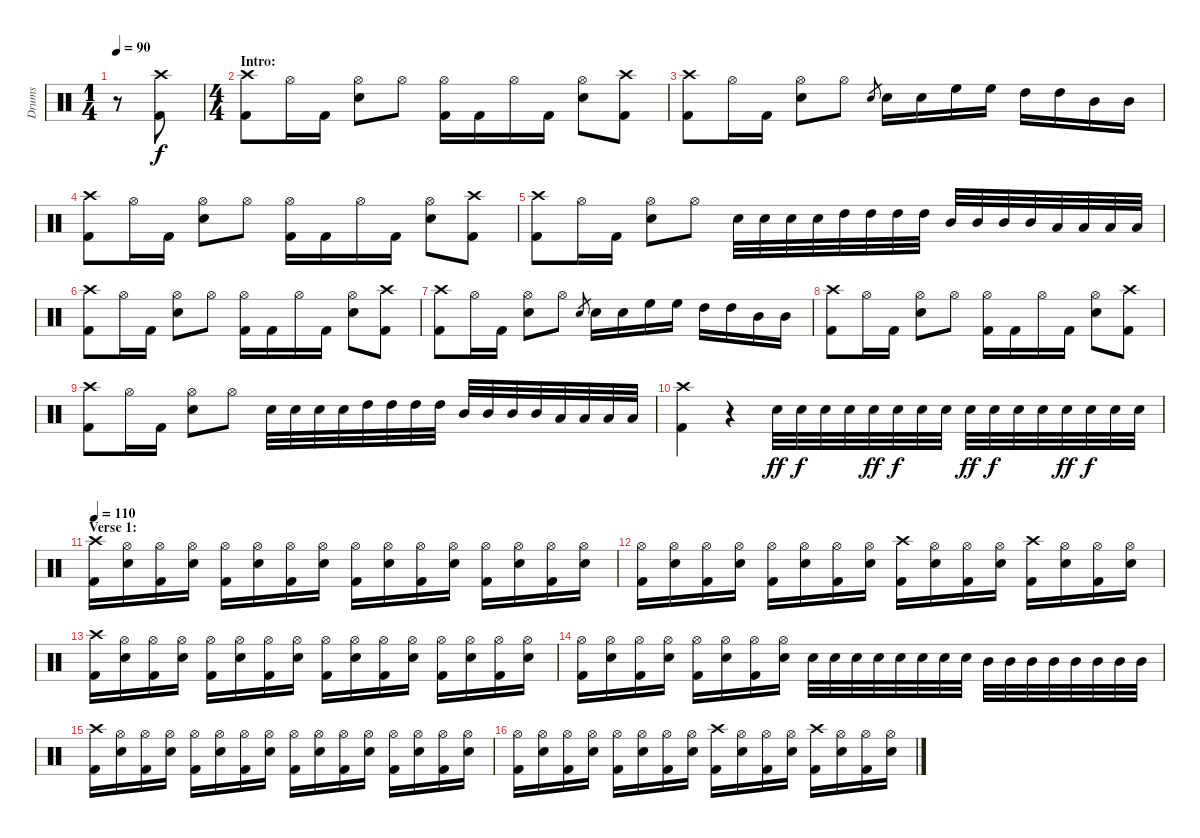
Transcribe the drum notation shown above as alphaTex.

\track ("Drums" "Drums") {instrument percussion}
\staff {score}
\articulation defaults
\ts (1 4)
\tempo 90
\clef neutral
\ks c
r.8{dy f} ("Crash high (hit)" "Kick (hit) 2").8 |
\ts (4 4)
\section ("" "Intro:")
("Crash high (hit)" "Kick (hit) 2").8 "Hi-Hat (open)".16 "Kick (hit) 2".16 ("Hi-Hat (open)" "Electric Snare (hit)").8 "Hi-Hat (open)".8 ("Hi-Hat (open)" "Kick (hit) 2").16 "Kick (hit) 2".16 "Hi-Hat (open)".16 "Kick (hit) 2".16 ("Hi-Hat (open)" "Electric Snare (hit)").8 ("Crash high (hit)" "Kick (hit) 2").8 |
("Crash high (hit)" "Kick (hit) 2").8 "Hi-Hat (open)".16 "Kick (hit) 2".16 ("Hi-Hat (open)" "Electric Snare (hit)").8 "Hi-Hat (open)".8 "Electric Snare (hit)".8{gr} "Electric Snare (hit)".16 "Electric Snare (hit)".16 "High Floor Tom (hit)".16 "High Floor Tom (hit)".16 "High Tom (hit)".16 "High Tom (hit)".16 "Mid Tom (hit)".16 "Mid Tom (hit)".16 |
("Crash high (hit)" "Kick (hit) 2").8 "Hi-Hat (open)".16 "Kick (hit) 2".16 ("Hi-Hat (open)" "Electric Snare (hit)").8 "Hi-Hat (open)".8 ("Hi-Hat (open)" "Kick (hit) 2").16 "Kick (hit) 2".16 "Hi-Hat (open)".16 "Kick (hit) 2".16 ("Hi-Hat (open)" "Electric Snare (hit)").8 ("Crash high (hit)" "Kick (hit) 2").8 |
("Crash high (hit)" "Kick (hit) 2").8 "Hi-Hat (open)".16 "Kick (hit) 2".16 ("Hi-Hat (open)" "Electric Snare (hit)").8 "Hi-Hat (open)".8 "Electric Snare (hit)".32 "Electric Snare (hit)".32 "Electric Snare (hit)".32 "Electric Snare (hit)".32 "High Tom (hit)".32 "High Tom (hit)".32 "High Tom (hit)".32 "High Tom (hit)".32 "Mid Tom (hit)".32 "Mid Tom (hit)".32 "Mid Tom (hit)".32 "Mid Tom (hit)".32 "Low Tom (hit)".32 "Low Tom (hit)".32 "Low Tom (hit)".32 "Low Tom (hit)".32 |
("Crash high (hit)" "Kick (hit) 2").8 "Hi-Hat (open)".16 "Kick (hit) 2".16 ("Hi-Hat (open)" "Electric Snare (hit)").8 "Hi-Hat (open)".8 ("Hi-Hat (open)" "Kick (hit) 2").16 "Kick (hit) 2".16 "Hi-Hat (open)".16 "Kick (hit) 2".16 ("Hi-Hat (open)" "Electric Snare (hit)").8 ("Crash high (hit)" "Kick (hit) 2").8 |
("Crash high (hit)" "Kick (hit) 2").8 "Hi-Hat (open)".16 "Kick (hit) 2".16 ("Hi-Hat (open)" "Electric Snare (hit)").8 "Hi-Hat (open)".8 "Electric Snare (hit)".8{gr} "Electric Snare (hit)".16 "Electric Snare (hit)".16 "High Floor Tom (hit)".16 "High Floor Tom (hit)".16 "High Tom (hit)".16 "High Tom (hit)".16 "Mid Tom (hit)".16 "Mid Tom (hit)".16 |
("Crash high (hit)" "Kick (hit) 2").8 "Hi-Hat (open)".16 "Kick (hit) 2".16 ("Hi-Hat (open)" "Electric Snare (hit)").8 "Hi-Hat (open)".8 ("Hi-Hat (open)" "Kick (hit) 2").16 "Kick (hit) 2".16 "Hi-Hat (open)".16 "Kick (hit) 2".16 ("Hi-Hat (open)" "Electric Snare (hit)").8 ("Crash high (hit)" "Kick (hit) 2").8 |
("Crash high (hit)" "Kick (hit) 2").8 "Hi-Hat (open)".16 "Kick (hit) 2".16 ("Hi-Hat (open)" "Electric Snare (hit)").8 "Hi-Hat (open)".8 "Electric Snare (hit)".32 "Electric Snare (hit)".32 "Electric Snare (hit)".32 "Electric Snare (hit)".32 "High Tom (hit)".32 "High Tom (hit)".32 "High Tom (hit)".32 "High Tom (hit)".32 "Mid Tom (hit)".32 "Mid Tom (hit)".32 "Mid Tom (hit)".32 "Mid Tom (hit)".32 "Low Tom (hit)".32 "Low Tom (hit)".32 "Low Tom (hit)".32 "Low Tom (hit)".32 |
("Crash high (hit)" "Kick (hit) 2").4 r.4 "Electric Snare (hit)".32{dy ff} "Electric Snare (hit)".32{dy f} "Electric Snare (hit)".32 "Electric Snare (hit)".32 "Electric Snare (hit)".32{dy ff} "Electric Snare (hit)".32{dy f} "Electric Snare (hit)".32 "Electric Snare (hit)".32 "Electric Snare (hit)".32{dy ff} "Electric Snare (hit)".32{dy f} "Electric Snare (hit)".32 "Electric Snare (hit)".32 "Electric Snare (hit)".32{dy ff} "Electric Snare (hit)".32{dy f} "Electric Snare (hit)".32 "Electric Snare (hit)".32 |
\section ("" "Verse 1:")
\tempo 110
("Crash high (hit)" "Kick (hit) 2").16 ("Hi-Hat (open)" "Electric Snare (hit)").16 ("Hi-Hat (open)" "Kick (hit) 2").16 ("Hi-Hat (open)" "Electric Snare (hit)").16 ("Hi-Hat (open)" "Kick (hit) 2").16 ("Hi-Hat (open)" "Electric Snare (hit)").16 ("Hi-Hat (open)" "Kick (hit) 2").16 ("Hi-Hat (open)" "Electric Snare (hit)").16 ("Hi-Hat (open)" "Kick (hit) 2").16 ("Hi-Hat (open)" "Electric Snare (hit)").16 ("Hi-Hat (open)" "Kick (hit) 2").16 ("Hi-Hat (open)" "Electric Snare (hit)").16 ("Hi-Hat (open)" "Kick (hit) 2").16 ("Hi-Hat (open)" "Electric Snare (hit)").16 ("Hi-Hat (open)" "Kick (hit) 2").16 ("Hi-Hat (open)" "Electric Snare (hit)").16 |
("Hi-Hat (open)" "Kick (hit) 2").16 ("Hi-Hat (open)" "Electric Snare (hit)").16 ("Hi-Hat (open)" "Kick (hit) 2").16 ("Hi-Hat (open)" "Electric Snare (hit)").16 ("Hi-Hat (open)" "Kick (hit) 2").16 ("Hi-Hat (open)" "Electric Snare (hit)").16 ("Hi-Hat (open)" "Kick (hit) 2").16 ("Hi-Hat (open)" "Electric Snare (hit)").16 ("Crash high (hit)" "Kick (hit) 2").16 ("Hi-Hat (open)" "Electric Snare (hit)").16 ("Hi-Hat (open)" "Kick (hit) 2").16 ("Hi-Hat (open)" "Electric Snare (hit)").16 ("Crash high (hit)" "Kick (hit) 2").16 ("Hi-Hat (open)" "Electric Snare (hit)").16 ("Hi-Hat (open)" "Kick (hit) 2").16 ("Hi-Hat (open)" "Electric Snare (hit)").16 |
("Crash high (hit)" "Kick (hit) 2").16 ("Hi-Hat (open)" "Electric Snare (hit)").16 ("Hi-Hat (open)" "Kick (hit) 2").16 ("Hi-Hat (open)" "Electric Snare (hit)").16 ("Hi-Hat (open)" "Kick (hit) 2").16 ("Hi-Hat (open)" "Electric Snare (hit)").16 ("Hi-Hat (open)" "Kick (hit) 2").16 ("Hi-Hat (open)" "Electric Snare (hit)").16 ("Hi-Hat (open)" "Kick (hit) 2").16 ("Hi-Hat (open)" "Electric Snare (hit)").16 ("Hi-Hat (open)" "Kick (hit) 2").16 ("Hi-Hat (open)" "Electric Snare (hit)").16 ("Hi-Hat (open)" "Kick (hit) 2").16 ("Hi-Hat (open)" "Electric Snare (hit)").16 ("Hi-Hat (open)" "Kick (hit) 2").16 ("Hi-Hat (open)" "Electric Snare (hit)").16 |
("Hi-Hat (open)" "Kick (hit) 2").16 ("Hi-Hat (open)" "Electric Snare (hit)").16 ("Hi-Hat (open)" "Kick (hit) 2").16 ("Hi-Hat (open)" "Electric Snare (hit)").16 ("Hi-Hat (open)" "Kick (hit) 2").16 ("Hi-Hat (open)" "Electric Snare (hit)").16 ("Hi-Hat (open)" "Kick (hit) 2").16 ("Hi-Hat (open)" "Electric Snare (hit)").16 "Electric Snare (hit)".32 "Electric Snare (hit)".32 "Electric Snare (hit)".32 "Electric Snare (hit)".32 "Electric Snare (hit)".32 "Electric Snare (hit)".32 "Electric Snare (hit)".32 "Electric Snare (hit)".32 "Mid Tom (hit)".32 "Mid Tom (hit)".32 "Mid Tom (hit)".32 "Mid Tom (hit)".32 "Mid Tom (hit)".32 "Mid Tom (hit)".32 "Mid Tom (hit)".32 "Mid Tom (hit)".32 |
("Crash high (hit)" "Kick (hit) 2").16 ("Hi-Hat (open)" "Electric Snare (hit)").16 ("Hi-Hat (open)" "Kick (hit) 2").16 ("Hi-Hat (open)" "Electric Snare (hit)").16 ("Hi-Hat (open)" "Kick (hit) 2").16 ("Hi-Hat (open)" "Electric Snare (hit)").16 ("Hi-Hat (open)" "Kick (hit) 2").16 ("Hi-Hat (open)" "Electric Snare (hit)").16 ("Hi-Hat (open)" "Kick (hit) 2").16 ("Hi-Hat (open)" "Electric Snare (hit)").16 ("Hi-Hat (open)" "Kick (hit) 2").16 ("Hi-Hat (open)" "Electric Snare (hit)").16 ("Hi-Hat (open)" "Kick (hit) 2").16 ("Hi-Hat (open)" "Electric Snare (hit)").16 ("Hi-Hat (open)" "Kick (hit) 2").16 ("Hi-Hat (open)" "Electric Snare (hit)").16 |
("Hi-Hat (open)" "Kick (hit) 2").16 ("Hi-Hat (open)" "Electric Snare (hit)").16 ("Hi-Hat (open)" "Kick (hit) 2").16 ("Hi-Hat (open)" "Electric Snare (hit)").16 ("Hi-Hat (open)" "Kick (hit) 2").16 ("Hi-Hat (open)" "Electric Snare (hit)").16 ("Hi-Hat (open)" "Kick (hit) 2").16 ("Hi-Hat (open)" "Electric Snare (hit)").16 ("Crash high (hit)" "Kick (hit) 2").16 ("Hi-Hat (open)" "Electric Snare (hit)").16 ("Hi-Hat (open)" "Kick (hit) 2").16 ("Hi-Hat (open)" "Electric Snare (hit)").16 ("Crash high (hit)" "Kick (hit) 2").16 ("Hi-Hat (open)" "Electric Snare (hit)").16 ("Hi-Hat (open)" "Kick (hit) 2").16 ("Hi-Hat (open)" "Electric Snare (hit)").16
